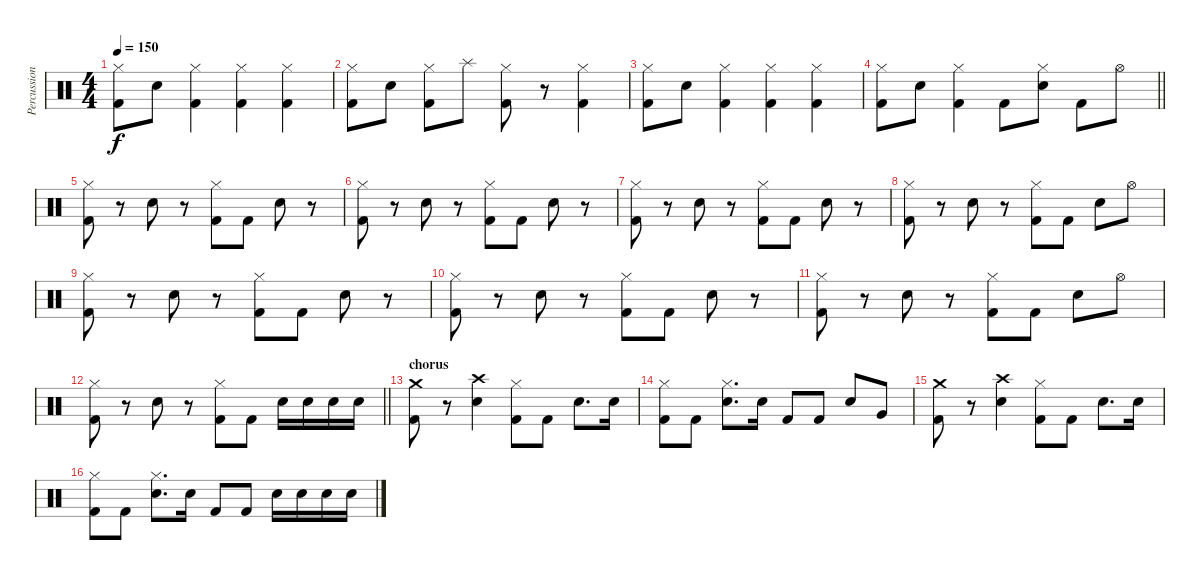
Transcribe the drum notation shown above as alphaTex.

\track ("Percussion" "Percussion") {instrument percussion}
\staff {score}
\articulation defaults
\ts (4 4)
\tempo 150
\clef neutral
\ks c
("Hi-Hat (closed)" "Kick (hit) 2").8{dy f} "Electric Snare (hit)".8 ("Hi-Hat (closed)" "Kick (hit) 2").4 ("Hi-Hat (closed)" "Kick (hit) 2").4 ("Hi-Hat (closed)" "Kick (hit) 2").4 |
("Hi-Hat (closed)" "Kick (hit) 2").8 "Electric Snare (hit)".8 ("Hi-Hat (closed)" "Kick (hit) 2").8 "Splash (hit)".8 ("Hi-Hat (closed)" "Kick (hit) 2").8 r.8 ("Hi-Hat (closed)" "Kick (hit) 2").4 |
("Hi-Hat (closed)" "Kick (hit) 2").8 "Electric Snare (hit)".8 ("Hi-Hat (closed)" "Kick (hit) 2").4 ("Hi-Hat (closed)" "Kick (hit) 2").4 ("Hi-Hat (closed)" "Kick (hit) 2").4 |
\barLineRight lightlight
("Hi-Hat (closed)" "Kick (hit) 2").8 "Electric Snare (hit)".8 ("Hi-Hat (closed)" "Kick (hit) 2").4 "Kick (hit) 2".8 ("Hi-Hat (closed)" "Electric Snare (hit)").8 "Kick (hit) 2".8 "Hi-Hat (open)".8 |
("Hi-Hat (closed)" "Kick (hit) 2").8 r.8 "Electric Snare (hit)".8 r.8 ("Hi-Hat (closed)" "Kick (hit) 2").8 "Kick (hit) 2".8 "Electric Snare (hit)".8 r.8 |
("Hi-Hat (closed)" "Kick (hit) 2").8 r.8 "Electric Snare (hit)".8 r.8 ("Hi-Hat (closed)" "Kick (hit) 2").8 "Kick (hit) 2".8 "Electric Snare (hit)".8 r.8 |
("Hi-Hat (closed)" "Kick (hit) 2").8 r.8 "Electric Snare (hit)".8 r.8 ("Hi-Hat (closed)" "Kick (hit) 2").8 "Kick (hit) 2".8 "Electric Snare (hit)".8 r.8 |
("Hi-Hat (closed)" "Kick (hit) 2").8 r.8 "Electric Snare (hit)".8 r.8 ("Hi-Hat (closed)" "Kick (hit) 2").8 "Kick (hit) 2".8 "Electric Snare (hit)".8 "Hi-Hat (open)".8 |
("Hi-Hat (closed)" "Kick (hit) 2").8 r.8 "Electric Snare (hit)".8 r.8 ("Hi-Hat (closed)" "Kick (hit) 2").8 "Kick (hit) 2".8 "Electric Snare (hit)".8 r.8 |
("Hi-Hat (closed)" "Kick (hit) 2").8 r.8 "Electric Snare (hit)".8 r.8 ("Hi-Hat (closed)" "Kick (hit) 2").8 "Kick (hit) 2".8 "Electric Snare (hit)".8 r.8 |
("Hi-Hat (closed)" "Kick (hit) 2").8 r.8 "Electric Snare (hit)".8 r.8 ("Hi-Hat (closed)" "Kick (hit) 2").8 "Kick (hit) 2".8 "Electric Snare (hit)".8 "Hi-Hat (open)".8 |
\barLineRight lightlight
("Hi-Hat (closed)" "Kick (hit) 2").8 r.8 "Electric Snare (hit)".8 r.8 ("Hi-Hat (closed)" "Kick (hit) 2").8 "Kick (hit) 2".8 "Electric Snare (hit)".16 "Electric Snare (hit)".16 "Electric Snare (hit)".16 "Electric Snare (hit)".16 |
\section ("" "chorus")
("Crash medium (hit)" "Kick (hit) 2").8 r.8 ("Crash high (hit)" "Electric Snare (hit)").4 ("Hi-Hat (closed)" "Kick (hit) 2").8 "Kick (hit) 2".8 "Electric Snare (hit)".8{d} "Electric Snare (hit)".16 |
("Hi-Hat (closed)" "Kick (hit) 2").8 "Kick (hit) 2".8 ("Hi-Hat (closed)" "Electric Snare (hit)").8{d} "Electric Snare (hit)".16 "Kick (hit) 2".8 "Kick (hit) 2".8 "Electric Snare (hit)".8 "Very Low Tom (hit)".8 |
("Crash medium (hit)" "Kick (hit) 2").8 r.8 ("Crash high (hit)" "Electric Snare (hit)").4 ("Hi-Hat (closed)" "Kick (hit) 2").8 "Kick (hit) 2".8 "Electric Snare (hit)".8{d} "Electric Snare (hit)".16 |
("Hi-Hat (closed)" "Kick (hit) 2").8 "Kick (hit) 2".8 ("Hi-Hat (closed)" "Electric Snare (hit)").8{d} "Electric Snare (hit)".16 "Kick (hit) 2".8 "Kick (hit) 2".8 "Electric Snare (hit)".16 "Electric Snare (hit)".16 "Electric Snare (hit)".16 "Electric Snare (hit)".16
